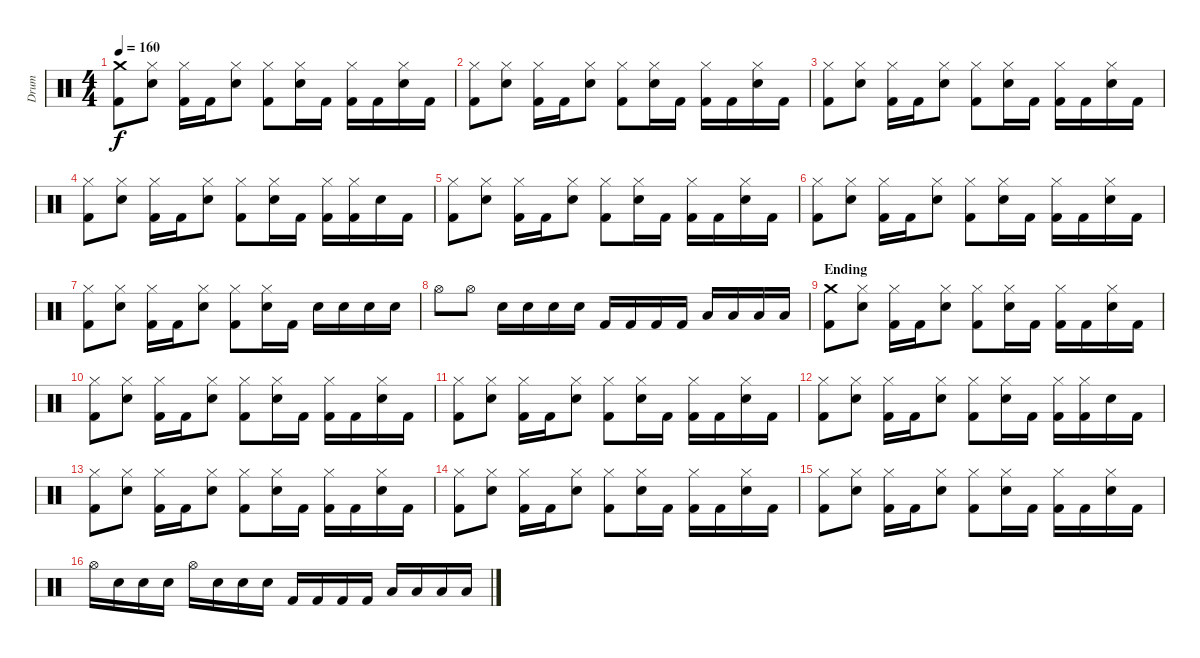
\track ("Drum" "Drum") {instrument percussion}
\staff {score}
\articulation defaults
\ts (4 4)
\tempo 160
\clef neutral
\ks c
("Crash medium (hit)" "Kick (hit) 2").8{dy f} ("Hi-Hat (closed)" "Snare (hit) 2").8 ("Hi-Hat (closed)" "Kick (hit) 2").16 "Kick (hit) 2".16 ("Hi-Hat (closed)" "Snare (hit) 2").8 ("Hi-Hat (closed)" "Kick (hit) 2").8 ("Hi-Hat (closed)" "Snare (hit) 2").16 "Kick (hit) 2".16 ("Hi-Hat (closed)" "Kick (hit) 2").16 "Kick (hit) 2".16 ("Hi-Hat (closed)" "Snare (hit) 2").16 "Kick (hit) 2".16 |
("Hi-Hat (closed)" "Kick (hit) 2").8 ("Hi-Hat (closed)" "Snare (hit) 2").8 ("Hi-Hat (closed)" "Kick (hit) 2").16 "Kick (hit) 2".16 ("Hi-Hat (closed)" "Snare (hit) 2").8 ("Hi-Hat (closed)" "Kick (hit) 2").8 ("Hi-Hat (closed)" "Snare (hit) 2").16 "Kick (hit) 2".16 ("Hi-Hat (closed)" "Kick (hit) 2").16 "Kick (hit) 2".16 ("Hi-Hat (closed)" "Snare (hit) 2").16 "Kick (hit) 2".16 |
("Hi-Hat (closed)" "Kick (hit) 2").8 ("Hi-Hat (closed)" "Snare (hit) 2").8 ("Hi-Hat (closed)" "Kick (hit) 2").16 "Kick (hit) 2".16 ("Hi-Hat (closed)" "Snare (hit) 2").8 ("Hi-Hat (closed)" "Kick (hit) 2").8 ("Hi-Hat (closed)" "Snare (hit) 2").16 "Kick (hit) 2".16 ("Hi-Hat (closed)" "Kick (hit) 2").16 "Kick (hit) 2".16 ("Hi-Hat (closed)" "Snare (hit) 2").16 "Kick (hit) 2".16 |
("Hi-Hat (closed)" "Kick (hit) 2").8 ("Hi-Hat (closed)" "Snare (hit) 2").8 ("Hi-Hat (closed)" "Kick (hit) 2").16 "Kick (hit) 2".16 ("Hi-Hat (closed)" "Snare (hit) 2").8 ("Hi-Hat (closed)" "Kick (hit) 2").8 ("Hi-Hat (closed)" "Snare (hit) 2").16 "Kick (hit) 2".16 ("Hi-Hat (closed)" "Kick (hit) 2").16 ("Hi-Hat (closed)" "Kick (hit) 2").16 "Snare (hit) 2".16 "Kick (hit) 2".16 |
("Hi-Hat (closed)" "Kick (hit) 2").8 ("Hi-Hat (closed)" "Snare (hit) 2").8 ("Hi-Hat (closed)" "Kick (hit) 2").16 "Kick (hit) 2".16 ("Hi-Hat (closed)" "Snare (hit) 2").8 ("Hi-Hat (closed)" "Kick (hit) 2").8 ("Hi-Hat (closed)" "Snare (hit) 2").16 "Kick (hit) 2".16 ("Hi-Hat (closed)" "Kick (hit) 2").16 "Kick (hit) 2".16 ("Hi-Hat (closed)" "Snare (hit) 2").16 "Kick (hit) 2".16 |
("Hi-Hat (closed)" "Kick (hit) 2").8 ("Hi-Hat (closed)" "Snare (hit) 2").8 ("Hi-Hat (closed)" "Kick (hit) 2").16 "Kick (hit) 2".16 ("Hi-Hat (closed)" "Snare (hit) 2").8 ("Hi-Hat (closed)" "Kick (hit) 2").8 ("Hi-Hat (closed)" "Snare (hit) 2").16 "Kick (hit) 2".16 ("Hi-Hat (closed)" "Kick (hit) 2").16 "Kick (hit) 2".16 ("Hi-Hat (closed)" "Snare (hit) 2").16 "Kick (hit) 2".16 |
("Hi-Hat (closed)" "Kick (hit) 2").8 ("Hi-Hat (closed)" "Snare (hit) 2").8 ("Hi-Hat (closed)" "Kick (hit) 2").16 "Kick (hit) 2".16 ("Hi-Hat (closed)" "Snare (hit) 2").8 ("Hi-Hat (closed)" "Kick (hit) 2").8 ("Hi-Hat (closed)" "Snare (hit) 2").16 "Kick (hit) 2".16 "Snare (hit) 2".16 "Snare (hit) 2".16 "Snare (hit) 2".16 "Snare (hit) 2".16 |
"Hi-Hat (open)".8 "Hi-Hat (open)".8 "Snare (hit) 2".16 "Snare (hit) 2".16 "Snare (hit) 2".16 "Snare (hit) 2".16 "Kick (hit) 2".16 "Kick (hit) 2".16 "Kick (hit) 2".16 "Kick (hit) 2".16 "Low Floor Tom (hit)".16 "Low Floor Tom (hit)".16 "Low Floor Tom (hit)".16 "Low Floor Tom (hit)".16 |
\section ("" "Ending")
("Crash medium (hit)" "Kick (hit) 2").8 ("Hi-Hat (closed)" "Snare (hit) 2").8 ("Hi-Hat (closed)" "Kick (hit) 2").16 "Kick (hit) 2".16 ("Hi-Hat (closed)" "Snare (hit) 2").8 ("Hi-Hat (closed)" "Kick (hit) 2").8 ("Hi-Hat (closed)" "Snare (hit) 2").16 "Kick (hit) 2".16 ("Hi-Hat (closed)" "Kick (hit) 2").16 "Kick (hit) 2".16 ("Hi-Hat (closed)" "Snare (hit) 2").16 "Kick (hit) 2".16 |
("Hi-Hat (closed)" "Kick (hit) 2").8 ("Hi-Hat (closed)" "Snare (hit) 2").8 ("Hi-Hat (closed)" "Kick (hit) 2").16 "Kick (hit) 2".16 ("Hi-Hat (closed)" "Snare (hit) 2").8 ("Hi-Hat (closed)" "Kick (hit) 2").8 ("Hi-Hat (closed)" "Snare (hit) 2").16 "Kick (hit) 2".16 ("Hi-Hat (closed)" "Kick (hit) 2").16 "Kick (hit) 2".16 ("Hi-Hat (closed)" "Snare (hit) 2").16 "Kick (hit) 2".16 |
("Hi-Hat (closed)" "Kick (hit) 2").8 ("Hi-Hat (closed)" "Snare (hit) 2").8 ("Hi-Hat (closed)" "Kick (hit) 2").16 "Kick (hit) 2".16 ("Hi-Hat (closed)" "Snare (hit) 2").8 ("Hi-Hat (closed)" "Kick (hit) 2").8 ("Hi-Hat (closed)" "Snare (hit) 2").16 "Kick (hit) 2".16 ("Hi-Hat (closed)" "Kick (hit) 2").16 "Kick (hit) 2".16 ("Hi-Hat (closed)" "Snare (hit) 2").16 "Kick (hit) 2".16 |
("Hi-Hat (closed)" "Kick (hit) 2").8 ("Hi-Hat (closed)" "Snare (hit) 2").8 ("Hi-Hat (closed)" "Kick (hit) 2").16 "Kick (hit) 2".16 ("Hi-Hat (closed)" "Snare (hit) 2").8 ("Hi-Hat (closed)" "Kick (hit) 2").8 ("Hi-Hat (closed)" "Snare (hit) 2").16 "Kick (hit) 2".16 ("Hi-Hat (closed)" "Kick (hit) 2").16 ("Hi-Hat (closed)" "Kick (hit) 2").16 "Snare (hit) 2".16 "Kick (hit) 2".16 |
("Hi-Hat (closed)" "Kick (hit) 2").8 ("Hi-Hat (closed)" "Snare (hit) 2").8 ("Hi-Hat (closed)" "Kick (hit) 2").16 "Kick (hit) 2".16 ("Hi-Hat (closed)" "Snare (hit) 2").8 ("Hi-Hat (closed)" "Kick (hit) 2").8 ("Hi-Hat (closed)" "Snare (hit) 2").16 "Kick (hit) 2".16 ("Hi-Hat (closed)" "Kick (hit) 2").16 "Kick (hit) 2".16 ("Hi-Hat (closed)" "Snare (hit) 2").16 "Kick (hit) 2".16 |
("Hi-Hat (closed)" "Kick (hit) 2").8 ("Hi-Hat (closed)" "Snare (hit) 2").8 ("Hi-Hat (closed)" "Kick (hit) 2").16 "Kick (hit) 2".16 ("Hi-Hat (closed)" "Snare (hit) 2").8 ("Hi-Hat (closed)" "Kick (hit) 2").8 ("Hi-Hat (closed)" "Snare (hit) 2").16 "Kick (hit) 2".16 ("Hi-Hat (closed)" "Kick (hit) 2").16 "Kick (hit) 2".16 ("Hi-Hat (closed)" "Snare (hit) 2").16 "Kick (hit) 2".16 |
("Hi-Hat (closed)" "Kick (hit) 2").8 ("Hi-Hat (closed)" "Snare (hit) 2").8 ("Hi-Hat (closed)" "Kick (hit) 2").16 "Kick (hit) 2".16 ("Hi-Hat (closed)" "Snare (hit) 2").8 ("Hi-Hat (closed)" "Kick (hit) 2").8 ("Hi-Hat (closed)" "Snare (hit) 2").16 "Kick (hit) 2".16 ("Hi-Hat (closed)" "Kick (hit) 2").16 "Kick (hit) 2".16 ("Hi-Hat (closed)" "Snare (hit) 2").16 "Kick (hit) 2".16 |
"Hi-Hat (open)".16 "Snare (hit) 2".16 "Snare (hit) 2".16 "Snare (hit) 2".16 "Hi-Hat (open)".16 "Snare (hit) 2".16 "Snare (hit) 2".16 "Snare (hit) 2".16 "Kick (hit) 2".16 "Kick (hit) 2".16 "Kick (hit) 2".16 "Kick (hit) 2".16 "Low Floor Tom (hit)".16 "Low Floor Tom (hit)".16 "Low Floor Tom (hit)".16 "Low Floor Tom (hit)".16
